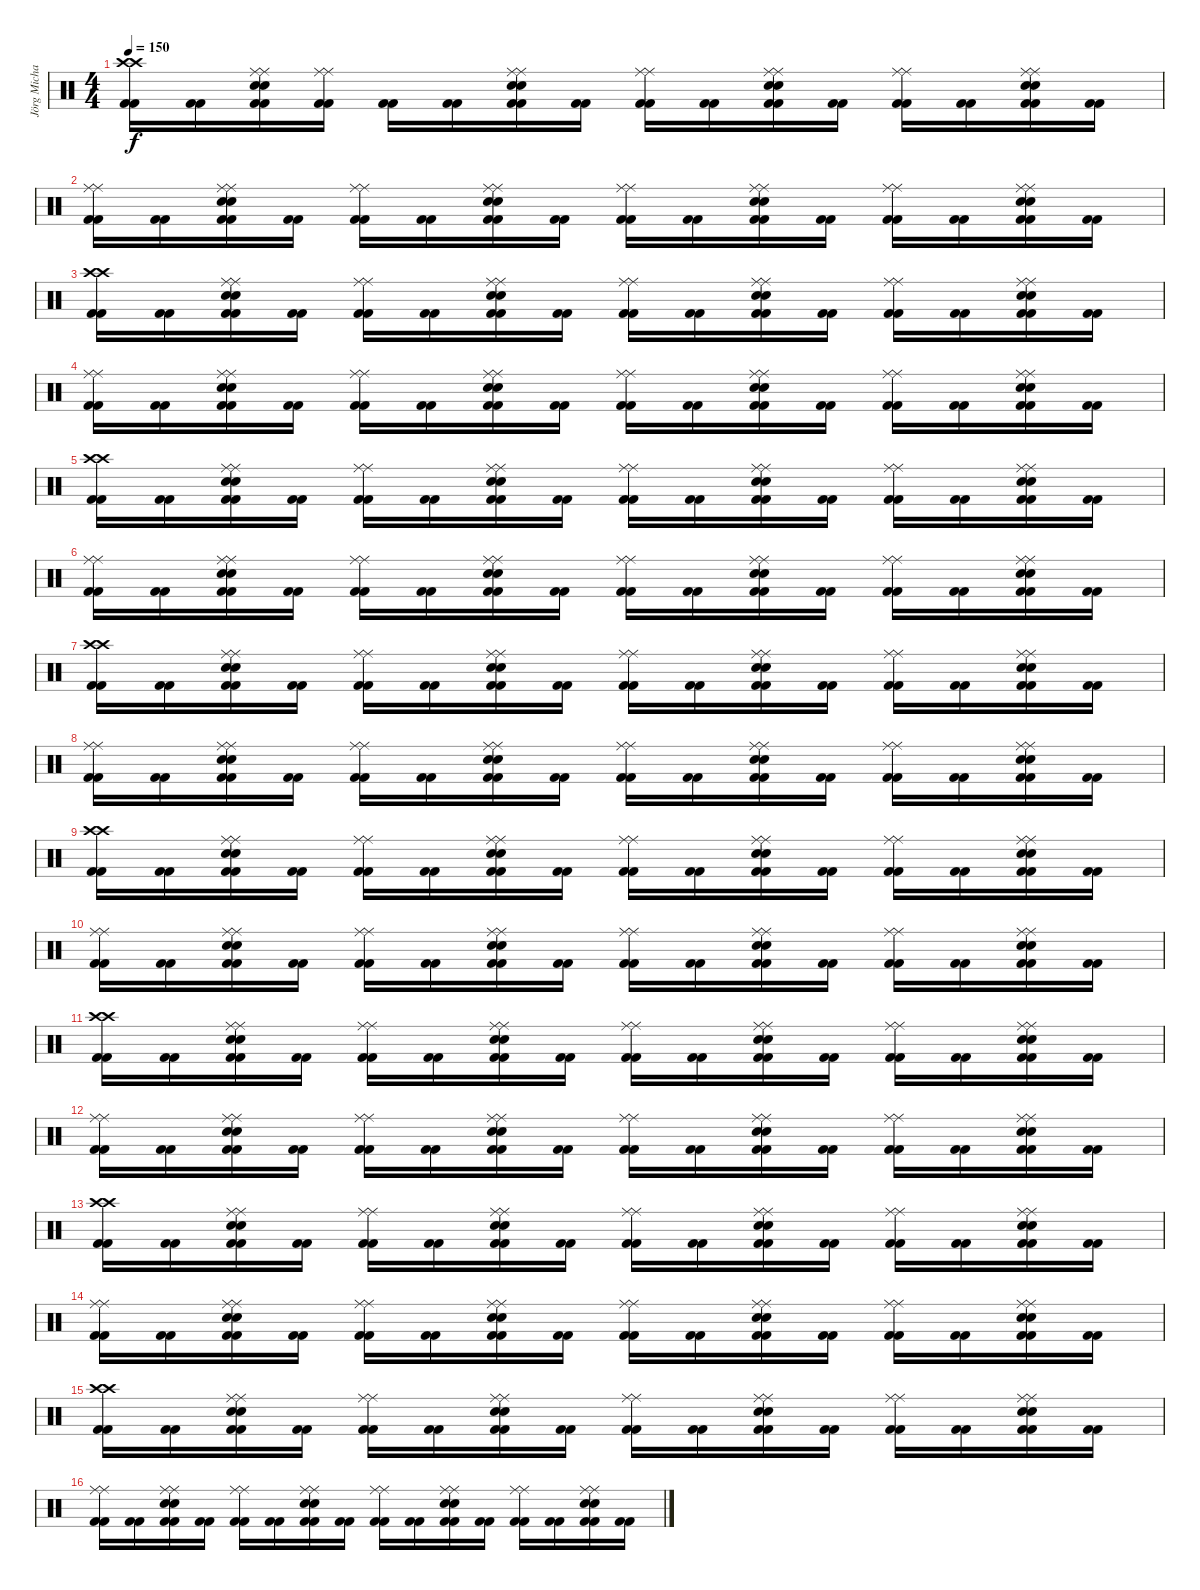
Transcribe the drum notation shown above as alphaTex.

\track ("Jörg Michael" "Jörg Micha") {instrument percussion}
\staff {score}
\articulation defaults
\ts (4 4)
\tempo 150
\clef neutral
\ks c
("Kick (hit) 2" "Crash high (hit)" "Kick (hit) 2" "Crash high (hit)").16{dy f} ("Kick (hit) 2" "Kick (hit) 2").16 ("Kick (hit) 2" "Snare (hit) 2" "Ride (middle)" "Kick (hit) 2" "Snare (hit) 2" "Ride (middle)").16 ("Ride (middle)" "Kick (hit) 2" "Ride (middle)" "Kick (hit) 2").16 ("Kick (hit) 2" "Kick (hit) 2").16 ("Kick (hit) 2" "Kick (hit) 2").16 ("Kick (hit) 2" "Snare (hit) 2" "Ride (middle)" "Kick (hit) 2" "Snare (hit) 2" "Ride (middle)").16 ("Kick (hit) 2" "Kick (hit) 2").16 ("Kick (hit) 2" "Ride (middle)" "Kick (hit) 2" "Ride (middle)").16 ("Kick (hit) 2" "Kick (hit) 2").16 ("Kick (hit) 2" "Snare (hit) 2" "Ride (middle)" "Kick (hit) 2" "Snare (hit) 2" "Ride (middle)").16 ("Kick (hit) 2" "Kick (hit) 2").16 ("Kick (hit) 2" "Ride (middle)" "Kick (hit) 2" "Ride (middle)").16 ("Kick (hit) 2" "Kick (hit) 2").16 ("Kick (hit) 2" "Snare (hit) 2" "Ride (middle)" "Kick (hit) 2" "Snare (hit) 2" "Ride (middle)").16 ("Kick (hit) 2" "Kick (hit) 2").16 |
("Kick (hit) 2" "Ride (middle)" "Kick (hit) 2" "Ride (middle)").16 ("Kick (hit) 2" "Kick (hit) 2").16 ("Kick (hit) 2" "Ride (middle)" "Snare (hit) 2" "Kick (hit) 2" "Ride (middle)" "Snare (hit) 2").16 ("Kick (hit) 2" "Kick (hit) 2").16 ("Kick (hit) 2" "Ride (middle)" "Kick (hit) 2" "Ride (middle)").16 ("Kick (hit) 2" "Kick (hit) 2").16 ("Kick (hit) 2" "Snare (hit) 2" "Ride (middle)" "Kick (hit) 2" "Snare (hit) 2" "Ride (middle)").16 ("Kick (hit) 2" "Kick (hit) 2").16 ("Kick (hit) 2" "Ride (middle)" "Kick (hit) 2" "Ride (middle)").16 ("Kick (hit) 2" "Kick (hit) 2").16 ("Kick (hit) 2" "Snare (hit) 2" "Ride (middle)" "Kick (hit) 2" "Snare (hit) 2" "Ride (middle)").16 ("Kick (hit) 2" "Kick (hit) 2").16 ("Kick (hit) 2" "Ride (middle)" "Kick (hit) 2" "Ride (middle)").16 ("Kick (hit) 2" "Kick (hit) 2").16 ("Kick (hit) 2" "Snare (hit) 2" "Ride (middle)" "Kick (hit) 2" "Snare (hit) 2" "Ride (middle)").16 ("Kick (hit) 2" "Kick (hit) 2").16 |
("Kick (hit) 2" "Crash high (hit)" "Kick (hit) 2" "Crash high (hit)").16 ("Kick (hit) 2" "Kick (hit) 2").16 ("Kick (hit) 2" "Snare (hit) 2" "Ride (middle)" "Kick (hit) 2" "Snare (hit) 2" "Ride (middle)").16 ("Kick (hit) 2" "Kick (hit) 2").16 ("Kick (hit) 2" "Ride (middle)" "Kick (hit) 2" "Ride (middle)").16 ("Kick (hit) 2" "Kick (hit) 2").16 ("Kick (hit) 2" "Ride (middle)" "Snare (hit) 2" "Kick (hit) 2" "Ride (middle)" "Snare (hit) 2").16 ("Kick (hit) 2" "Kick (hit) 2").16 ("Kick (hit) 2" "Ride (middle)" "Kick (hit) 2" "Ride (middle)").16 ("Kick (hit) 2" "Kick (hit) 2").16 ("Kick (hit) 2" "Ride (middle)" "Snare (hit) 2" "Kick (hit) 2" "Ride (middle)" "Snare (hit) 2").16 ("Kick (hit) 2" "Kick (hit) 2").16 ("Kick (hit) 2" "Ride (middle)" "Kick (hit) 2" "Ride (middle)").16 ("Kick (hit) 2" "Kick (hit) 2").16 ("Kick (hit) 2" "Ride (middle)" "Snare (hit) 2" "Kick (hit) 2" "Ride (middle)" "Snare (hit) 2").16 ("Kick (hit) 2" "Kick (hit) 2").16 |
("Kick (hit) 2" "Ride (middle)" "Kick (hit) 2" "Ride (middle)").16 ("Kick (hit) 2" "Kick (hit) 2").16 ("Kick (hit) 2" "Snare (hit) 2" "Ride (middle)" "Kick (hit) 2" "Snare (hit) 2" "Ride (middle)").16 ("Kick (hit) 2" "Kick (hit) 2").16 ("Kick (hit) 2" "Ride (middle)" "Kick (hit) 2" "Ride (middle)").16 ("Kick (hit) 2" "Kick (hit) 2").16 ("Kick (hit) 2" "Ride (middle)" "Snare (hit) 2" "Kick (hit) 2" "Ride (middle)" "Snare (hit) 2").16 ("Kick (hit) 2" "Kick (hit) 2").16 ("Kick (hit) 2" "Ride (middle)" "Kick (hit) 2" "Ride (middle)").16 ("Kick (hit) 2" "Kick (hit) 2").16 ("Kick (hit) 2" "Snare (hit) 2" "Ride (middle)" "Kick (hit) 2" "Snare (hit) 2" "Ride (middle)").16 ("Kick (hit) 2" "Kick (hit) 2").16 ("Kick (hit) 2" "Ride (middle)" "Kick (hit) 2" "Ride (middle)").16 ("Kick (hit) 2" "Kick (hit) 2").16 ("Kick (hit) 2" "Snare (hit) 2" "Ride (middle)" "Kick (hit) 2" "Snare (hit) 2" "Ride (middle)").16 ("Kick (hit) 2" "Kick (hit) 2").16 |
("Kick (hit) 2" "Crash high (hit)" "Kick (hit) 2" "Crash high (hit)").16 ("Kick (hit) 2" "Kick (hit) 2").16 ("Kick (hit) 2" "Snare (hit) 2" "Ride (middle)" "Kick (hit) 2" "Snare (hit) 2" "Ride (middle)").16 ("Kick (hit) 2" "Kick (hit) 2").16 ("Kick (hit) 2" "Ride (middle)" "Kick (hit) 2" "Ride (middle)").16 ("Kick (hit) 2" "Kick (hit) 2").16 ("Kick (hit) 2" "Snare (hit) 2" "Ride (middle)" "Kick (hit) 2" "Snare (hit) 2" "Ride (middle)").16 ("Kick (hit) 2" "Kick (hit) 2").16 ("Kick (hit) 2" "Ride (middle)" "Kick (hit) 2" "Ride (middle)").16 ("Kick (hit) 2" "Kick (hit) 2").16 ("Kick (hit) 2" "Snare (hit) 2" "Ride (middle)" "Kick (hit) 2" "Snare (hit) 2" "Ride (middle)").16 ("Kick (hit) 2" "Kick (hit) 2").16 ("Kick (hit) 2" "Ride (middle)" "Kick (hit) 2" "Ride (middle)").16 ("Kick (hit) 2" "Kick (hit) 2").16 ("Kick (hit) 2" "Snare (hit) 2" "Ride (middle)" "Kick (hit) 2" "Snare (hit) 2" "Ride (middle)").16 ("Kick (hit) 2" "Kick (hit) 2").16 |
("Kick (hit) 2" "Ride (middle)" "Kick (hit) 2" "Ride (middle)").16 ("Kick (hit) 2" "Kick (hit) 2").16 ("Kick (hit) 2" "Ride (middle)" "Snare (hit) 2" "Kick (hit) 2" "Ride (middle)" "Snare (hit) 2").16 ("Kick (hit) 2" "Kick (hit) 2").16 ("Kick (hit) 2" "Ride (middle)" "Kick (hit) 2" "Ride (middle)").16 ("Kick (hit) 2" "Kick (hit) 2").16 ("Kick (hit) 2" "Snare (hit) 2" "Ride (middle)" "Kick (hit) 2" "Snare (hit) 2" "Ride (middle)").16 ("Kick (hit) 2" "Kick (hit) 2").16 ("Kick (hit) 2" "Ride (middle)" "Kick (hit) 2" "Ride (middle)").16 ("Kick (hit) 2" "Kick (hit) 2").16 ("Kick (hit) 2" "Snare (hit) 2" "Ride (middle)" "Kick (hit) 2" "Snare (hit) 2" "Ride (middle)").16 ("Kick (hit) 2" "Kick (hit) 2").16 ("Kick (hit) 2" "Ride (middle)" "Kick (hit) 2" "Ride (middle)").16 ("Kick (hit) 2" "Kick (hit) 2").16 ("Kick (hit) 2" "Snare (hit) 2" "Ride (middle)" "Kick (hit) 2" "Snare (hit) 2" "Ride (middle)").16 ("Kick (hit) 2" "Kick (hit) 2").16 |
("Kick (hit) 2" "Crash high (hit)" "Kick (hit) 2" "Crash high (hit)").16 ("Kick (hit) 2" "Kick (hit) 2").16 ("Kick (hit) 2" "Snare (hit) 2" "Ride (middle)" "Kick (hit) 2" "Snare (hit) 2" "Ride (middle)").16 ("Kick (hit) 2" "Kick (hit) 2").16 ("Kick (hit) 2" "Ride (middle)" "Kick (hit) 2" "Ride (middle)").16 ("Kick (hit) 2" "Kick (hit) 2").16 ("Kick (hit) 2" "Ride (middle)" "Snare (hit) 2" "Kick (hit) 2" "Ride (middle)" "Snare (hit) 2").16 ("Kick (hit) 2" "Kick (hit) 2").16 ("Kick (hit) 2" "Ride (middle)" "Kick (hit) 2" "Ride (middle)").16 ("Kick (hit) 2" "Kick (hit) 2").16 ("Kick (hit) 2" "Ride (middle)" "Snare (hit) 2" "Kick (hit) 2" "Ride (middle)" "Snare (hit) 2").16 ("Kick (hit) 2" "Kick (hit) 2").16 ("Kick (hit) 2" "Ride (middle)" "Kick (hit) 2" "Ride (middle)").16 ("Kick (hit) 2" "Kick (hit) 2").16 ("Kick (hit) 2" "Ride (middle)" "Snare (hit) 2" "Kick (hit) 2" "Ride (middle)" "Snare (hit) 2").16 ("Kick (hit) 2" "Kick (hit) 2").16 |
("Kick (hit) 2" "Ride (middle)" "Kick (hit) 2" "Ride (middle)").16 ("Kick (hit) 2" "Kick (hit) 2").16 ("Kick (hit) 2" "Snare (hit) 2" "Ride (middle)" "Kick (hit) 2" "Snare (hit) 2" "Ride (middle)").16 ("Kick (hit) 2" "Kick (hit) 2").16 ("Kick (hit) 2" "Ride (middle)" "Kick (hit) 2" "Ride (middle)").16 ("Kick (hit) 2" "Kick (hit) 2").16 ("Kick (hit) 2" "Ride (middle)" "Snare (hit) 2" "Kick (hit) 2" "Ride (middle)" "Snare (hit) 2").16 ("Kick (hit) 2" "Kick (hit) 2").16 ("Kick (hit) 2" "Ride (middle)" "Kick (hit) 2" "Ride (middle)").16 ("Kick (hit) 2" "Kick (hit) 2").16 ("Kick (hit) 2" "Snare (hit) 2" "Ride (middle)" "Kick (hit) 2" "Snare (hit) 2" "Ride (middle)").16 ("Kick (hit) 2" "Kick (hit) 2").16 ("Kick (hit) 2" "Ride (middle)" "Kick (hit) 2" "Ride (middle)").16 ("Kick (hit) 2" "Kick (hit) 2").16 ("Kick (hit) 2" "Snare (hit) 2" "Ride (middle)" "Kick (hit) 2" "Snare (hit) 2" "Ride (middle)").16 ("Kick (hit) 2" "Kick (hit) 2").16 |
("Kick (hit) 2" "Crash high (hit)" "Kick (hit) 2" "Crash high (hit)").16 ("Kick (hit) 2" "Kick (hit) 2").16 ("Kick (hit) 2" "Snare (hit) 2" "Ride (middle)" "Kick (hit) 2" "Snare (hit) 2" "Ride (middle)").16 ("Kick (hit) 2" "Kick (hit) 2").16 ("Kick (hit) 2" "Ride (middle)" "Kick (hit) 2" "Ride (middle)").16 ("Kick (hit) 2" "Kick (hit) 2").16 ("Kick (hit) 2" "Snare (hit) 2" "Ride (middle)" "Kick (hit) 2" "Snare (hit) 2" "Ride (middle)").16 ("Kick (hit) 2" "Kick (hit) 2").16 ("Kick (hit) 2" "Ride (middle)" "Kick (hit) 2" "Ride (middle)").16 ("Kick (hit) 2" "Kick (hit) 2").16 ("Kick (hit) 2" "Snare (hit) 2" "Ride (middle)" "Kick (hit) 2" "Snare (hit) 2" "Ride (middle)").16 ("Kick (hit) 2" "Kick (hit) 2").16 ("Kick (hit) 2" "Ride (middle)" "Kick (hit) 2" "Ride (middle)").16 ("Kick (hit) 2" "Kick (hit) 2").16 ("Kick (hit) 2" "Snare (hit) 2" "Ride (middle)" "Kick (hit) 2" "Snare (hit) 2" "Ride (middle)").16 ("Kick (hit) 2" "Kick (hit) 2").16 |
("Kick (hit) 2" "Ride (middle)" "Kick (hit) 2" "Ride (middle)").16 ("Kick (hit) 2" "Kick (hit) 2").16 ("Kick (hit) 2" "Ride (middle)" "Snare (hit) 2" "Kick (hit) 2" "Ride (middle)" "Snare (hit) 2").16 ("Kick (hit) 2" "Kick (hit) 2").16 ("Kick (hit) 2" "Ride (middle)" "Kick (hit) 2" "Ride (middle)").16 ("Kick (hit) 2" "Kick (hit) 2").16 ("Kick (hit) 2" "Snare (hit) 2" "Ride (middle)" "Kick (hit) 2" "Snare (hit) 2" "Ride (middle)").16 ("Kick (hit) 2" "Kick (hit) 2").16 ("Kick (hit) 2" "Ride (middle)" "Kick (hit) 2" "Ride (middle)").16 ("Kick (hit) 2" "Kick (hit) 2").16 ("Kick (hit) 2" "Snare (hit) 2" "Ride (middle)" "Kick (hit) 2" "Snare (hit) 2" "Ride (middle)").16 ("Kick (hit) 2" "Kick (hit) 2").16 ("Kick (hit) 2" "Ride (middle)" "Kick (hit) 2" "Ride (middle)").16 ("Kick (hit) 2" "Kick (hit) 2").16 ("Kick (hit) 2" "Snare (hit) 2" "Ride (middle)" "Kick (hit) 2" "Snare (hit) 2" "Ride (middle)").16 ("Kick (hit) 2" "Kick (hit) 2").16 |
("Kick (hit) 2" "Crash high (hit)" "Kick (hit) 2" "Crash high (hit)").16 ("Kick (hit) 2" "Kick (hit) 2").16 ("Kick (hit) 2" "Snare (hit) 2" "Ride (middle)" "Kick (hit) 2" "Snare (hit) 2" "Ride (middle)").16 ("Kick (hit) 2" "Kick (hit) 2").16 ("Kick (hit) 2" "Ride (middle)" "Kick (hit) 2" "Ride (middle)").16 ("Kick (hit) 2" "Kick (hit) 2").16 ("Kick (hit) 2" "Ride (middle)" "Snare (hit) 2" "Kick (hit) 2" "Ride (middle)" "Snare (hit) 2").16 ("Kick (hit) 2" "Kick (hit) 2").16 ("Kick (hit) 2" "Ride (middle)" "Kick (hit) 2" "Ride (middle)").16 ("Kick (hit) 2" "Kick (hit) 2").16 ("Kick (hit) 2" "Ride (middle)" "Snare (hit) 2" "Kick (hit) 2" "Ride (middle)" "Snare (hit) 2").16 ("Kick (hit) 2" "Kick (hit) 2").16 ("Kick (hit) 2" "Ride (middle)" "Kick (hit) 2" "Ride (middle)").16 ("Kick (hit) 2" "Kick (hit) 2").16 ("Kick (hit) 2" "Ride (middle)" "Snare (hit) 2" "Kick (hit) 2" "Ride (middle)" "Snare (hit) 2").16 ("Kick (hit) 2" "Kick (hit) 2").16 |
("Kick (hit) 2" "Ride (middle)" "Kick (hit) 2" "Ride (middle)").16 ("Kick (hit) 2" "Kick (hit) 2").16 ("Kick (hit) 2" "Snare (hit) 2" "Ride (middle)" "Kick (hit) 2" "Snare (hit) 2" "Ride (middle)").16 ("Kick (hit) 2" "Kick (hit) 2").16 ("Kick (hit) 2" "Ride (middle)" "Kick (hit) 2" "Ride (middle)").16 ("Kick (hit) 2" "Kick (hit) 2").16 ("Kick (hit) 2" "Ride (middle)" "Snare (hit) 2" "Kick (hit) 2" "Ride (middle)" "Snare (hit) 2").16 ("Kick (hit) 2" "Kick (hit) 2").16 ("Kick (hit) 2" "Ride (middle)" "Kick (hit) 2" "Ride (middle)").16 ("Kick (hit) 2" "Kick (hit) 2").16 ("Kick (hit) 2" "Snare (hit) 2" "Ride (middle)" "Kick (hit) 2" "Snare (hit) 2" "Ride (middle)").16 ("Kick (hit) 2" "Kick (hit) 2").16 ("Kick (hit) 2" "Ride (middle)" "Kick (hit) 2" "Ride (middle)").16 ("Kick (hit) 2" "Kick (hit) 2").16 ("Kick (hit) 2" "Snare (hit) 2" "Ride (middle)" "Kick (hit) 2" "Snare (hit) 2" "Ride (middle)").16 ("Kick (hit) 2" "Kick (hit) 2").16 |
("Kick (hit) 2" "Crash high (hit)" "Kick (hit) 2" "Crash high (hit)").16 ("Kick (hit) 2" "Kick (hit) 2").16 ("Kick (hit) 2" "Snare (hit) 2" "Ride (middle)" "Kick (hit) 2" "Snare (hit) 2" "Ride (middle)").16 ("Kick (hit) 2" "Kick (hit) 2").16 ("Kick (hit) 2" "Ride (middle)" "Kick (hit) 2" "Ride (middle)").16 ("Kick (hit) 2" "Kick (hit) 2").16 ("Kick (hit) 2" "Snare (hit) 2" "Ride (middle)" "Kick (hit) 2" "Snare (hit) 2" "Ride (middle)").16 ("Kick (hit) 2" "Kick (hit) 2").16 ("Kick (hit) 2" "Ride (middle)" "Kick (hit) 2" "Ride (middle)").16 ("Kick (hit) 2" "Kick (hit) 2").16 ("Kick (hit) 2" "Snare (hit) 2" "Ride (middle)" "Kick (hit) 2" "Snare (hit) 2" "Ride (middle)").16 ("Kick (hit) 2" "Kick (hit) 2").16 ("Kick (hit) 2" "Ride (middle)" "Kick (hit) 2" "Ride (middle)").16 ("Kick (hit) 2" "Kick (hit) 2").16 ("Kick (hit) 2" "Snare (hit) 2" "Ride (middle)" "Kick (hit) 2" "Snare (hit) 2" "Ride (middle)").16 ("Kick (hit) 2" "Kick (hit) 2").16 |
("Kick (hit) 2" "Ride (middle)" "Kick (hit) 2" "Ride (middle)").16 ("Kick (hit) 2" "Kick (hit) 2").16 ("Kick (hit) 2" "Ride (middle)" "Snare (hit) 2" "Kick (hit) 2" "Ride (middle)" "Snare (hit) 2").16 ("Kick (hit) 2" "Kick (hit) 2").16 ("Kick (hit) 2" "Ride (middle)" "Kick (hit) 2" "Ride (middle)").16 ("Kick (hit) 2" "Kick (hit) 2").16 ("Kick (hit) 2" "Snare (hit) 2" "Ride (middle)" "Kick (hit) 2" "Snare (hit) 2" "Ride (middle)").16 ("Kick (hit) 2" "Kick (hit) 2").16 ("Kick (hit) 2" "Ride (middle)" "Kick (hit) 2" "Ride (middle)").16 ("Kick (hit) 2" "Kick (hit) 2").16 ("Kick (hit) 2" "Snare (hit) 2" "Ride (middle)" "Kick (hit) 2" "Snare (hit) 2" "Ride (middle)").16 ("Kick (hit) 2" "Kick (hit) 2").16 ("Kick (hit) 2" "Ride (middle)" "Kick (hit) 2" "Ride (middle)").16 ("Kick (hit) 2" "Kick (hit) 2").16 ("Kick (hit) 2" "Snare (hit) 2" "Ride (middle)" "Kick (hit) 2" "Snare (hit) 2" "Ride (middle)").16 ("Kick (hit) 2" "Kick (hit) 2").16 |
("Kick (hit) 2" "Crash high (hit)" "Kick (hit) 2" "Crash high (hit)").16 ("Kick (hit) 2" "Kick (hit) 2").16 ("Kick (hit) 2" "Snare (hit) 2" "Ride (middle)" "Kick (hit) 2" "Snare (hit) 2" "Ride (middle)").16 ("Kick (hit) 2" "Kick (hit) 2").16 ("Kick (hit) 2" "Ride (middle)" "Kick (hit) 2" "Ride (middle)").16 ("Kick (hit) 2" "Kick (hit) 2").16 ("Kick (hit) 2" "Ride (middle)" "Snare (hit) 2" "Kick (hit) 2" "Ride (middle)" "Snare (hit) 2").16 ("Kick (hit) 2" "Kick (hit) 2").16 ("Kick (hit) 2" "Ride (middle)" "Kick (hit) 2" "Ride (middle)").16 ("Kick (hit) 2" "Kick (hit) 2").16 ("Kick (hit) 2" "Ride (middle)" "Snare (hit) 2" "Kick (hit) 2" "Ride (middle)" "Snare (hit) 2").16 ("Kick (hit) 2" "Kick (hit) 2").16 ("Kick (hit) 2" "Ride (middle)" "Kick (hit) 2" "Ride (middle)").16 ("Kick (hit) 2" "Kick (hit) 2").16 ("Kick (hit) 2" "Ride (middle)" "Snare (hit) 2" "Kick (hit) 2" "Ride (middle)" "Snare (hit) 2").16 ("Kick (hit) 2" "Kick (hit) 2").16 |
("Kick (hit) 2" "Ride (middle)" "Kick (hit) 2" "Ride (middle)").16 ("Kick (hit) 2" "Kick (hit) 2").16 ("Kick (hit) 2" "Snare (hit) 2" "Ride (middle)" "Kick (hit) 2" "Snare (hit) 2" "Ride (middle)").16 ("Kick (hit) 2" "Kick (hit) 2").16 ("Kick (hit) 2" "Ride (middle)" "Kick (hit) 2" "Ride (middle)").16 ("Kick (hit) 2" "Kick (hit) 2").16 ("Kick (hit) 2" "Ride (middle)" "Snare (hit) 2" "Kick (hit) 2" "Ride (middle)" "Snare (hit) 2").16 ("Kick (hit) 2" "Kick (hit) 2").16 ("Kick (hit) 2" "Ride (middle)" "Kick (hit) 2" "Ride (middle)").16 ("Kick (hit) 2" "Kick (hit) 2").16 ("Kick (hit) 2" "Snare (hit) 2" "Ride (middle)" "Kick (hit) 2" "Snare (hit) 2" "Ride (middle)").16 ("Kick (hit) 2" "Kick (hit) 2").16 ("Kick (hit) 2" "Ride (middle)" "Kick (hit) 2" "Ride (middle)").16 ("Kick (hit) 2" "Kick (hit) 2").16 ("Kick (hit) 2" "Snare (hit) 2" "Ride (middle)" "Kick (hit) 2" "Snare (hit) 2" "Ride (middle)").16 ("Kick (hit) 2" "Kick (hit) 2").16
